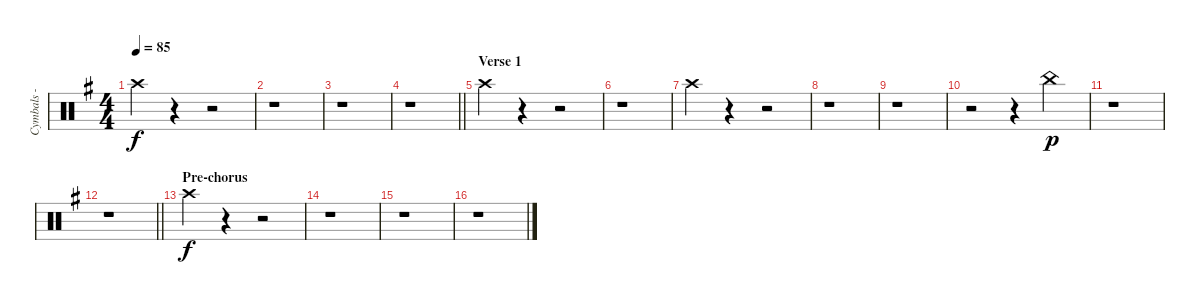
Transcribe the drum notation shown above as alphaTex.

\track ("Cymbals - crash" "Cymbals - ") {instrument percussion}
\staff {score}
\articulation defaults
\ts (4 4)
\tempo 85
\clef neutral
\ks g "Crash high (hit)".4{dy f}
r.4 r.2 |
r.1 |
r.1 |
\barLineRight lightlight
r.1 |
\section ("" "Verse 1")
"Crash high (hit)".4 r.4 r.2 |
r.1 |
"Crash high (hit)".4 r.4 r.2 |
r.1 |
r.1 |
r.2 r.4{beam merge} "China (hit)".4{dy p} |
r.1 |
\barLineRight lightlight
r.1 |
\section ("" "Pre-chorus")
"Crash high (hit)".4{dy f} r.4 r.2 |
r.1 |
r.1 |
r.1
